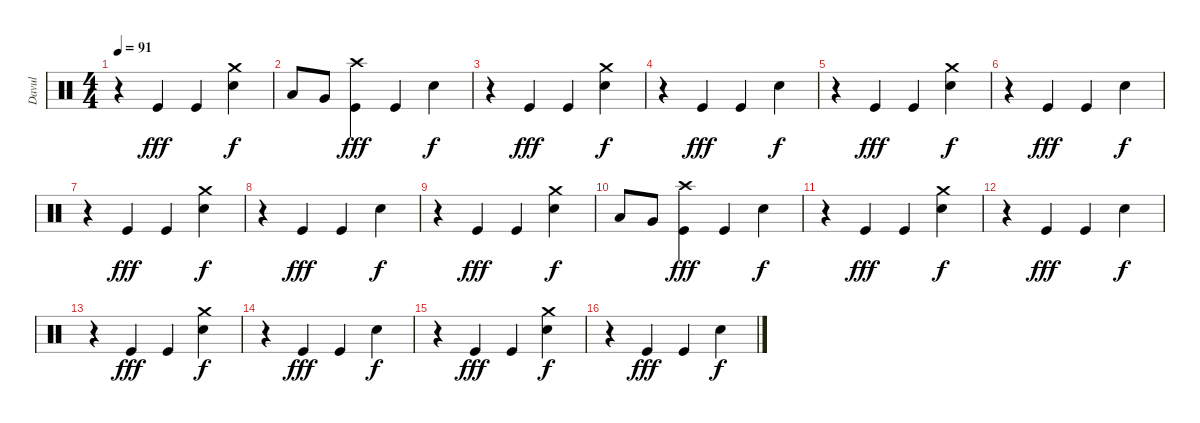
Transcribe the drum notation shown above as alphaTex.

\track ("Davul" "Davul") {instrument percussion}
\staff {score}
\articulation defaults
\ts (4 4)
\tempo 91
\clef neutral
\ks c
r.4{dy f} "Kick (hit)".4{dy fff} "Kick (hit)".4 ("Crash medium (hit)" "Snare (hit) 2").4{dy f} |
"Low Tom (hit)".8 "Very Low Tom (hit)".8 ("Crash high (hit)" "Kick (hit)").4{dy fff} "Kick (hit)".4 "Snare (hit) 2".4{dy f} |
r.4 "Kick (hit)".4{dy fff} "Kick (hit)".4 ("Crash medium (hit)" "Snare (hit) 2").4{dy f} |
r.4 "Kick (hit)".4{dy fff} "Kick (hit)".4 "Snare (hit) 2".4{dy f} |
r.4 "Kick (hit)".4{dy fff} "Kick (hit)".4 ("Crash medium (hit)" "Snare (hit) 2").4{dy f} |
r.4 "Kick (hit)".4{dy fff} "Kick (hit)".4 "Snare (hit) 2".4{dy f} |
r.4 "Kick (hit)".4{dy fff} "Kick (hit)".4 ("Crash medium (hit)" "Snare (hit) 2").4{dy f} |
r.4 "Kick (hit)".4{dy fff} "Kick (hit)".4 "Snare (hit) 2".4{dy f} |
r.4 "Kick (hit)".4{dy fff} "Kick (hit)".4 ("Crash medium (hit)" "Snare (hit) 2").4{dy f} |
"Low Tom (hit)".8 "Very Low Tom (hit)".8 ("Crash high (hit)" "Kick (hit)").4{dy fff} "Kick (hit)".4 "Snare (hit) 2".4{dy f} |
r.4 "Kick (hit)".4{dy fff} "Kick (hit)".4 ("Crash medium (hit)" "Snare (hit) 2").4{dy f} |
r.4 "Kick (hit)".4{dy fff} "Kick (hit)".4 "Snare (hit) 2".4{dy f} |
r.4 "Kick (hit)".4{dy fff} "Kick (hit)".4 ("Crash medium (hit)" "Snare (hit) 2").4{dy f} |
r.4 "Kick (hit)".4{dy fff} "Kick (hit)".4 "Snare (hit) 2".4{dy f} |
r.4 "Kick (hit)".4{dy fff} "Kick (hit)".4 ("Crash medium (hit)" "Snare (hit) 2").4{dy f} |
r.4 "Kick (hit)".4{dy fff} "Kick (hit)".4 "Snare (hit) 2".4{dy f}
